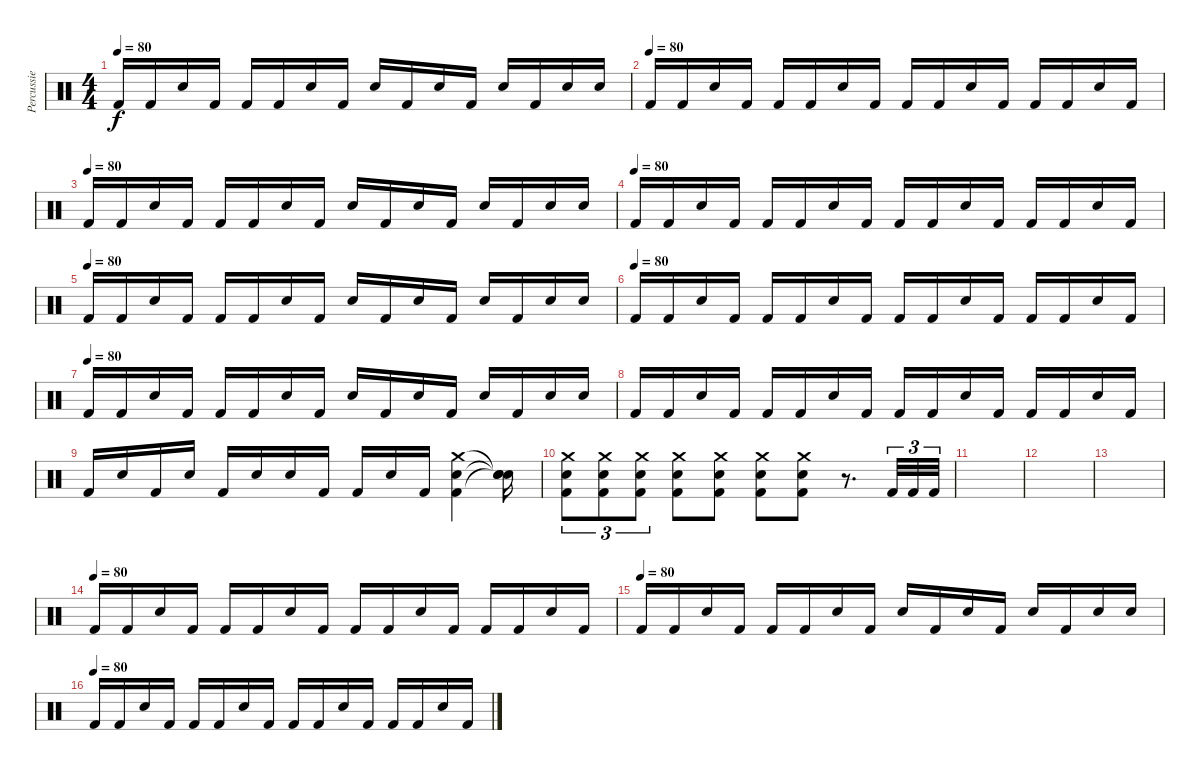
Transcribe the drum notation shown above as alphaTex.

\track ("Percussie" "Percussie") {instrument percussion}
\staff {score}
\articulation defaults
\ts (4 4)
\tempo 80
\clef neutral
\ks c "Kick (hit) 2".16{dy f} "Kick (hit) 2".16 "Electric Snare (hit)".16 "Kick (hit) 2".16 "Kick (hit) 2".16 "Kick (hit) 2".16 "Electric Snare (hit)".16 "Kick (hit) 2".16 "Electric Snare (hit)".16 "Kick (hit) 2".16 "Electric Snare (hit)".16 "Kick (hit) 2".16 "Electric Snare (hit)".16 "Kick (hit) 2".16 "Electric Snare (hit)".16 "Electric Snare (hit)".16
|
\tempo (80)
"Kick (hit) 2".16 "Kick (hit) 2".16 "Electric Snare (hit)".16 "Kick (hit) 2".16 "Kick (hit) 2".16 "Kick (hit) 2".16 "Electric Snare (hit)".16 "Kick (hit) 2".16 "Kick (hit) 2".16 "Kick (hit) 2".16 "Electric Snare (hit)".16 "Kick (hit) 2".16 "Kick (hit) 2".16 "Kick (hit) 2".16 "Electric Snare (hit)".16 "Kick (hit) 2".16 |
\tempo (80)
"Kick (hit) 2".16 "Kick (hit) 2".16 "Electric Snare (hit)".16 "Kick (hit) 2".16 "Kick (hit) 2".16 "Kick (hit) 2".16 "Electric Snare (hit)".16 "Kick (hit) 2".16 "Electric Snare (hit)".16 "Kick (hit) 2".16 "Electric Snare (hit)".16 "Kick (hit) 2".16 "Electric Snare (hit)".16 "Kick (hit) 2".16 "Electric Snare (hit)".16 "Electric Snare (hit)".16 |
\tempo (80)
"Kick (hit) 2".16 "Kick (hit) 2".16 "Electric Snare (hit)".16 "Kick (hit) 2".16 "Kick (hit) 2".16 "Kick (hit) 2".16 "Electric Snare (hit)".16 "Kick (hit) 2".16 "Kick (hit) 2".16 "Kick (hit) 2".16 "Electric Snare (hit)".16 "Kick (hit) 2".16 "Kick (hit) 2".16 "Kick (hit) 2".16 "Electric Snare (hit)".16 "Kick (hit) 2".16 |
\tempo (80)
"Kick (hit) 2".16 "Kick (hit) 2".16 "Electric Snare (hit)".16 "Kick (hit) 2".16 "Kick (hit) 2".16 "Kick (hit) 2".16 "Electric Snare (hit)".16 "Kick (hit) 2".16 "Electric Snare (hit)".16 "Kick (hit) 2".16 "Electric Snare (hit)".16 "Kick (hit) 2".16 "Electric Snare (hit)".16 "Kick (hit) 2".16 "Electric Snare (hit)".16 "Electric Snare (hit)".16 |
\tempo (80)
"Kick (hit) 2".16 "Kick (hit) 2".16 "Electric Snare (hit)".16 "Kick (hit) 2".16 "Kick (hit) 2".16 "Kick (hit) 2".16 "Electric Snare (hit)".16 "Kick (hit) 2".16 "Kick (hit) 2".16 "Kick (hit) 2".16 "Electric Snare (hit)".16 "Kick (hit) 2".16 "Kick (hit) 2".16 "Kick (hit) 2".16 "Electric Snare (hit)".16 "Kick (hit) 2".16 |
\tempo (80)
"Kick (hit) 2".16 "Kick (hit) 2".16 "Electric Snare (hit)".16 "Kick (hit) 2".16 "Kick (hit) 2".16 "Kick (hit) 2".16 "Electric Snare (hit)".16 "Kick (hit) 2".16 "Electric Snare (hit)".16 "Kick (hit) 2".16 "Electric Snare (hit)".16 "Kick (hit) 2".16 "Electric Snare (hit)".16 "Kick (hit) 2".16 "Electric Snare (hit)".16 "Electric Snare (hit)".16 |
"Kick (hit) 2".16 "Kick (hit) 2".16 "Electric Snare (hit)".16 "Kick (hit) 2".16 "Kick (hit) 2".16 "Kick (hit) 2".16 "Electric Snare (hit)".16 "Kick (hit) 2".16 "Kick (hit) 2".16 "Kick (hit) 2".16 "Electric Snare (hit)".16 "Kick (hit) 2".16 "Kick (hit) 2".16 "Kick (hit) 2".16 "Electric Snare (hit)".16 "Kick (hit) 2".16 |
"Kick (hit) 2".16 "Electric Snare (hit)".16 "Kick (hit) 2".16 "Electric Snare (hit)".16 "Kick (hit) 2".16 "Electric Snare (hit)".16 "Electric Snare (hit)".16 "Kick (hit) 2".16 "Kick (hit) 2".16 "Electric Snare (hit)".16 "Kick (hit) 2".16 ("Kick (hit) 2" "Electric Snare (hit)" "Crash medium (hit)").4 ("Snare (hit)"{t} "Snare (hit)"{t} "Snare (hit)"{t}).16 |
("Crash medium (hit)" "Kick (hit) 2" "Electric Snare (hit)").8{tu (3 2)} ("Crash medium (hit)" "Kick (hit) 2" "Electric Snare (hit)").8{tu (3 2)} ("Crash medium (hit)" "Kick (hit) 2" "Electric Snare (hit)").8{tu (3 2)} ("Crash medium (hit)" "Kick (hit) 2" "Electric Snare (hit)").8 ("Crash medium (hit)" "Kick (hit) 2" "Electric Snare (hit)").8 ("Crash medium (hit)" "Kick (hit) 2" "Electric Snare (hit)").8 ("Crash medium (hit)" "Kick (hit) 2" "Electric Snare (hit)").8 r.8{d} "Kick (hit) 2".32{tu (3 2)} "Kick (hit) 2".32{tu (3 2)} "Kick (hit) 2".32{tu (3 2)} |
|
|
|
\tempo (80)
"Kick (hit) 2".16 "Kick (hit) 2".16 "Electric Snare (hit)".16 "Kick (hit) 2".16 "Kick (hit) 2".16 "Kick (hit) 2".16 "Electric Snare (hit)".16 "Kick (hit) 2".16 "Kick (hit) 2".16 "Kick (hit) 2".16 "Electric Snare (hit)".16 "Kick (hit) 2".16 "Kick (hit) 2".16 "Kick (hit) 2".16 "Electric Snare (hit)".16 "Kick (hit) 2".16 |
\tempo (80)
"Kick (hit) 2".16 "Kick (hit) 2".16 "Electric Snare (hit)".16 "Kick (hit) 2".16 "Kick (hit) 2".16 "Kick (hit) 2".16 "Electric Snare (hit)".16 "Kick (hit) 2".16 "Electric Snare (hit)".16 "Kick (hit) 2".16 "Electric Snare (hit)".16 "Kick (hit) 2".16 "Electric Snare (hit)".16 "Kick (hit) 2".16 "Electric Snare (hit)".16 "Electric Snare (hit)".16 |
\tempo (80)
"Kick (hit) 2".16 "Kick (hit) 2".16 "Electric Snare (hit)".16 "Kick (hit) 2".16 "Kick (hit) 2".16 "Kick (hit) 2".16 "Electric Snare (hit)".16 "Kick (hit) 2".16 "Kick (hit) 2".16 "Kick (hit) 2".16 "Electric Snare (hit)".16 "Kick (hit) 2".16 "Kick (hit) 2".16 "Kick (hit) 2".16 "Electric Snare (hit)".16 "Kick (hit) 2".16
